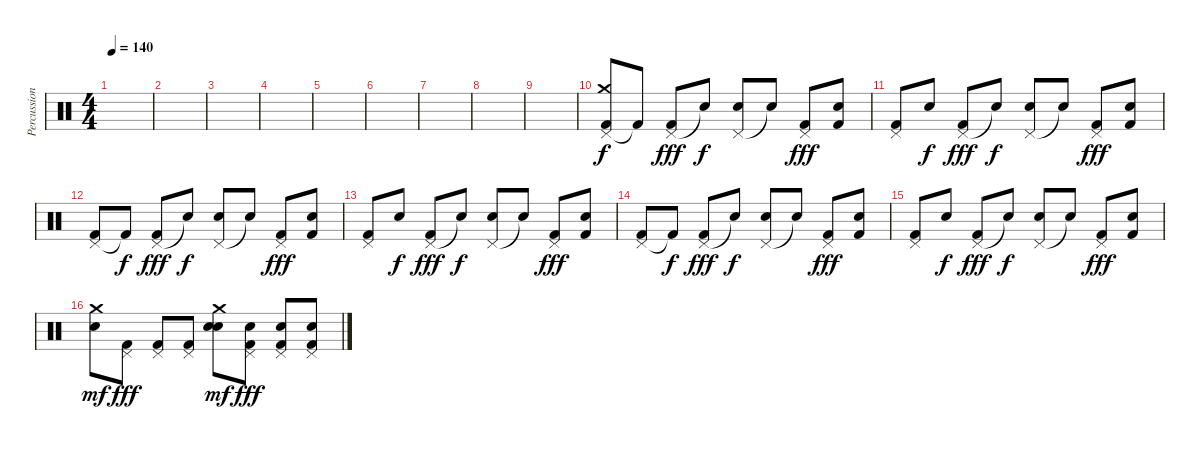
\track ("Percussion" "Percussion") {instrument percussion}
\staff {score}
\articulation defaults
\ts (4 4)
\tempo 140
\clef neutral
\ks c
|
|
|
|
|
|
|
|
|
("Pedal Hi-Hat (hit)" "Crash medium (hit)" "Kick (hit) 2").8 "Kick (hit) 2"{t}.8{dy f} ("Pedal Hi-Hat (hit)" "Kick (hit) 2").8{dy fff} "Snare (hit)"{t}.8{dy f} ("Pedal Hi-Hat (hit)" "Electric Snare (hit)").8 "Snare (hit)"{t}.8 ("Pedal Hi-Hat (hit)" "Kick (hit) 2").8{dy fff} ("Electric Snare (hit)" "Kick (hit) 2").8 |
("Pedal Hi-Hat (hit)" "Kick (hit) 2").8 "Electric Snare (hit)".8{dy f} ("Pedal Hi-Hat (hit)" "Kick (hit) 2").8{dy fff} "Snare (hit)"{t}.8{dy f} ("Pedal Hi-Hat (hit)" "Electric Snare (hit)").8 "Snare (hit)"{t}.8 ("Pedal Hi-Hat (hit)" "Kick (hit) 2").8{dy fff} ("Electric Snare (hit)" "Kick (hit) 2").8 |
("Pedal Hi-Hat (hit)" "Kick (hit) 2").8 "Kick (hit) 2"{t}.8{dy f} ("Pedal Hi-Hat (hit)" "Kick (hit) 2").8{dy fff} "Snare (hit)"{t}.8{dy f} ("Pedal Hi-Hat (hit)" "Electric Snare (hit)").8 "Snare (hit)"{t}.8 ("Pedal Hi-Hat (hit)" "Kick (hit) 2").8{dy fff} ("Electric Snare (hit)" "Kick (hit) 2").8 |
("Pedal Hi-Hat (hit)" "Kick (hit) 2").8 "Electric Snare (hit)".8{dy f} ("Pedal Hi-Hat (hit)" "Kick (hit) 2").8{dy fff} "Snare (hit)"{t}.8{dy f} ("Pedal Hi-Hat (hit)" "Electric Snare (hit)").8 "Snare (hit)"{t}.8 ("Pedal Hi-Hat (hit)" "Kick (hit) 2").8{dy fff} ("Electric Snare (hit)" "Kick (hit) 2").8 |
("Pedal Hi-Hat (hit)" "Kick (hit) 2").8 "Kick (hit) 2"{t}.8{dy f} ("Pedal Hi-Hat (hit)" "Kick (hit) 2").8{dy fff} "Snare (hit)"{t}.8{dy f} ("Pedal Hi-Hat (hit)" "Electric Snare (hit)").8 "Snare (hit)"{t}.8 ("Pedal Hi-Hat (hit)" "Kick (hit) 2").8{dy fff} ("Electric Snare (hit)" "Kick (hit) 2").8 |
("Pedal Hi-Hat (hit)" "Kick (hit) 2").8 "Electric Snare (hit)".8{dy f} ("Pedal Hi-Hat (hit)" "Kick (hit) 2").8{dy fff} "Snare (hit)"{t}.8{dy f} ("Pedal Hi-Hat (hit)" "Electric Snare (hit)").8 "Snare (hit)"{t}.8 ("Pedal Hi-Hat (hit)" "Kick (hit) 2").8{dy fff} ("Electric Snare (hit)" "Kick (hit) 2").8 |
("Crash medium (hit)" "Electric Snare (hit)").8{dy mf} ("Pedal Hi-Hat (hit)" "Kick (hit) 2").8{dy fff} ("Pedal Hi-Hat (hit)" "Kick (hit) 2").8 ("Pedal Hi-Hat (hit)" "Kick (hit) 2").8 ("Crash medium (hit)" "Electric Snare (hit)" "Electric Snare (hit)").8{dy mf} ("Pedal Hi-Hat (hit)" "Electric Snare (hit)" "Kick (hit) 2").8{dy fff} ("Pedal Hi-Hat (hit)" "Electric Snare (hit)" "Kick (hit) 2").8 ("Pedal Hi-Hat (hit)" "Electric Snare (hit)" "Kick (hit) 2").8
